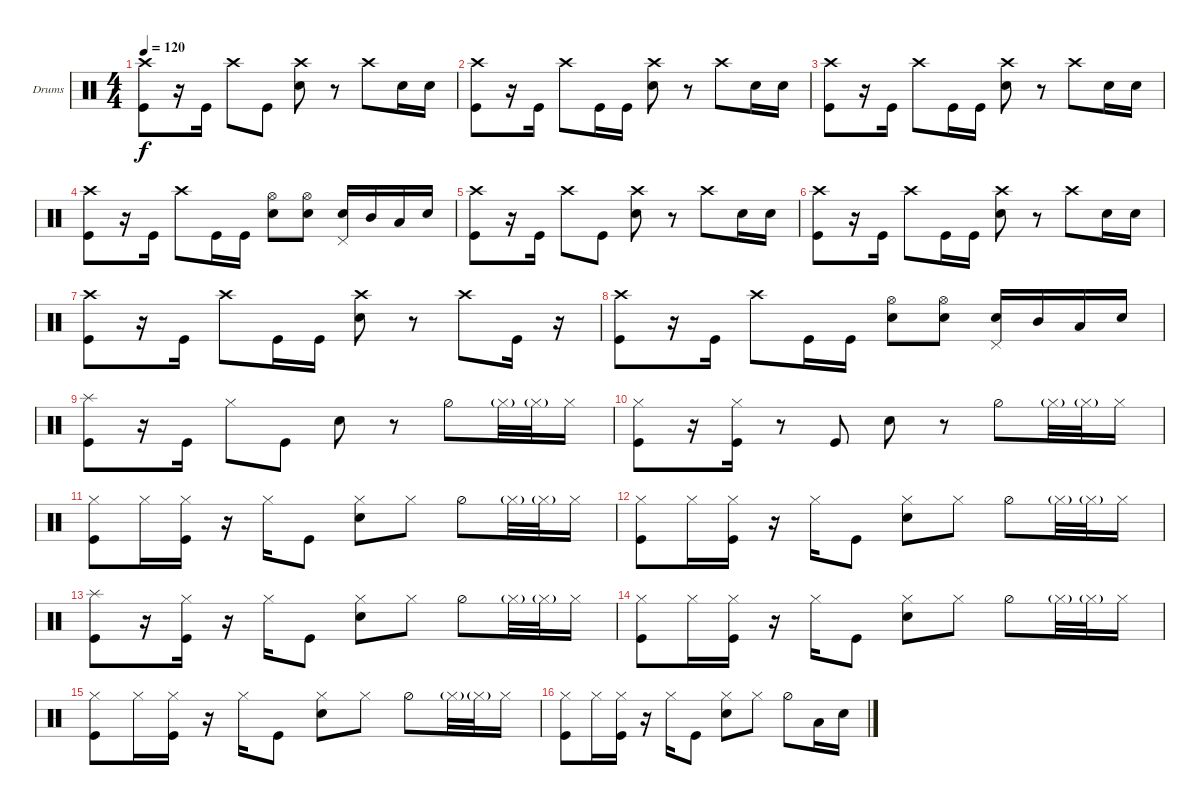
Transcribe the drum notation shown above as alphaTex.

\bracketExtendMode groupsimilarinstruments
\firstSystemTrackNameOrientation horizontal
\otherSystemsTrackNameOrientation horizontal
\track ("Drumkit" "Drums") {instrument percussion}
\staff {score}
\articulation defaults
\ts (4 4)
\tempo 120
\clef neutral
\ks c
("Crash high (hit)" "Kick (hit)").8{dy f} r.16 "Kick (hit)".16 "Crash high (hit)".8 "Kick (hit)".8 ("Crash high (hit)" "Snare (hit) 2").8 r.8 "Crash high (hit)".8 "Snare (hit) 2".16 "Snare (hit) 2".16 |
("Crash high (hit)" "Kick (hit)").8 r.16 "Kick (hit)".16 "Crash high (hit)".8 "Kick (hit)".16 "Kick (hit)".16 ("Crash high (hit)" "Snare (hit) 2").8 r.8 "Crash high (hit)".8 "Snare (hit) 2".16 "Snare (hit) 2".16 |
("Crash high (hit)" "Kick (hit)").8 r.16 "Kick (hit)".16 "Crash high (hit)".8 "Kick (hit)".16 "Kick (hit)".16 ("Crash high (hit)" "Snare (hit) 2").8 r.8 "Crash high (hit)".8 "Snare (hit) 2".16 "Snare (hit) 2".16 |
("Crash high (hit)" "Kick (hit)").8 r.16 "Kick (hit)".16 "Crash high (hit)".8 "Kick (hit)".16 "Kick (hit)".16 ("Hi-Hat (open)" "Snare (hit) 2").8 ("Hi-Hat (open)" "Snare (hit) 2").8 ("Snare (hit) 2" "Pedal Hi-Hat (hit)").16 "Mid Tom (hit)".16 "Low Tom (hit)".16 "Snare (hit) 2".16 |
("Crash high (hit)" "Kick (hit)").8 r.16 "Kick (hit)".16 "Crash high (hit)".8 "Kick (hit)".8 ("Crash high (hit)" "Snare (hit) 2").8 r.8 "Crash high (hit)".8 "Snare (hit) 2".16 "Snare (hit) 2".16 |
("Crash high (hit)" "Kick (hit)").8 r.16 "Kick (hit)".16 "Crash high (hit)".8 "Kick (hit)".16 "Kick (hit)".16 ("Crash high (hit)" "Snare (hit) 2").8 r.8 "Crash high (hit)".8 "Snare (hit) 2".16 "Snare (hit) 2".16 |
("Crash high (hit)" "Kick (hit)").8 r.16 "Kick (hit)".16 "Crash high (hit)".8 "Kick (hit)".16 "Kick (hit)".16 ("Crash high (hit)" "Snare (hit) 2").8 r.8 "Crash high (hit)".8 "Kick (hit)".16 r.16 |
("Crash high (hit)" "Kick (hit)").8 r.16 "Kick (hit)".16 "Crash high (hit)".8 "Kick (hit)".16 "Kick (hit)".16 ("Hi-Hat (open)" "Snare (hit) 2").8 ("Hi-Hat (open)" "Snare (hit) 2").8 ("Snare (hit) 2" "Pedal Hi-Hat (hit)").16 "Mid Tom (hit)".16 "Low Tom (hit)".16 "Snare (hit) 2".16 |
("Splash (hit)" "Kick (hit)").8 r.16 "Kick (hit)".16 "Hi-Hat (closed)".8 "Kick (hit)".8 "Snare (hit) 2".8 r.8 "Hi-Hat (half)".8 "Hi-Hat (closed)"{g}.32 "Hi-Hat (closed)"{g}.32 "Hi-Hat (closed)".16 |
("Kick (hit)" "Hi-Hat (closed)").8 r.16 ("Kick (hit)" "Hi-Hat (closed)").16 r.8 "Kick (hit)".8 "Snare (hit) 2".8 r.8 "Hi-Hat (half)".8 "Hi-Hat (closed)"{g}.32 "Hi-Hat (closed)"{g}.32 "Hi-Hat (closed)".16 |
("Kick (hit)" "Hi-Hat (closed)").8 "Hi-Hat (closed)".16 ("Kick (hit)" "Hi-Hat (closed)").16 r.16 "Hi-Hat (closed)".16 "Kick (hit)".8 ("Snare (hit) 2" "Hi-Hat (closed)").8 "Hi-Hat (closed)".8 "Hi-Hat (half)".8 "Hi-Hat (closed)"{g}.32 "Hi-Hat (closed)"{g}.32 "Hi-Hat (closed)".16 |
("Kick (hit)" "Hi-Hat (closed)").8 "Hi-Hat (closed)".16 ("Kick (hit)" "Hi-Hat (closed)").16 r.16 "Hi-Hat (closed)".16 "Kick (hit)".8 ("Snare (hit) 2" "Hi-Hat (closed)").8 "Hi-Hat (closed)".8 "Hi-Hat (half)".8 "Hi-Hat (closed)"{g}.32 "Hi-Hat (closed)"{g}.32 "Hi-Hat (closed)".16 |
("Kick (hit)" "Splash (hit)").8 r.16 ("Kick (hit)" "Hi-Hat (closed)").16 r.16 "Hi-Hat (closed)".16 "Kick (hit)".8 ("Snare (hit) 2" "Hi-Hat (closed)").8 "Hi-Hat (closed)".8 "Hi-Hat (half)".8 "Hi-Hat (closed)"{g}.32 "Hi-Hat (closed)"{g}.32 "Hi-Hat (closed)".16 |
("Kick (hit)" "Hi-Hat (closed)").8 "Hi-Hat (closed)".16 ("Kick (hit)" "Hi-Hat (closed)").16 r.16 "Hi-Hat (closed)".16 "Kick (hit)".8 ("Snare (hit) 2" "Hi-Hat (closed)").8 "Hi-Hat (closed)".8 "Hi-Hat (half)".8 "Hi-Hat (closed)"{g}.32 "Hi-Hat (closed)"{g}.32 "Hi-Hat (closed)".16 |
("Kick (hit)" "Hi-Hat (closed)").8 "Hi-Hat (closed)".16 ("Kick (hit)" "Hi-Hat (closed)").16 r.16 "Hi-Hat (closed)".16 "Kick (hit)".8 ("Snare (hit) 2" "Hi-Hat (closed)").8 "Hi-Hat (closed)".8 "Hi-Hat (half)".8 "Hi-Hat (closed)"{g}.32 "Hi-Hat (closed)"{g}.32 "Hi-Hat (closed)".16 |
("Kick (hit)" "Hi-Hat (closed)").8 "Hi-Hat (closed)".16 ("Kick (hit)" "Hi-Hat (closed)").16 r.16 "Hi-Hat (closed)".16 "Kick (hit)".8 ("Snare (hit) 2" "Hi-Hat (closed)").8 "Hi-Hat (closed)".8 "Hi-Hat (half)".8 "Low Tom (hit)".16 "Snare (hit) 2".16
